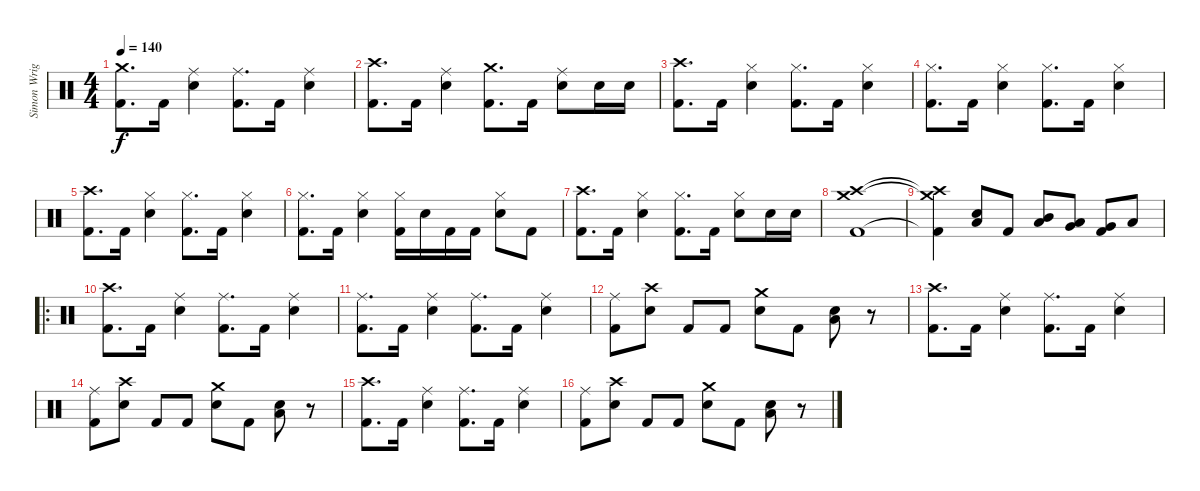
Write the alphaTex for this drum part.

\track ("Simon Wright" "Simon Wrig") {instrument percussion}
\staff {score}
\articulation defaults
\ts (4 4)
\tempo 140
\clef neutral
\ks c
("Crash medium (hit)" "Kick (hit) 2").8{d dy f} "Kick (hit) 2".16 ("Ride (middle)" "Snare (hit) 2").4 ("Ride (middle)" "Kick (hit) 2").8{d} "Kick (hit) 2".16 ("Ride (middle)" "Snare (hit) 2").4 |
("Crash high (hit)" "Kick (hit) 2").8{d} "Kick (hit) 2".16 ("Ride (middle)" "Snare (hit) 2").4 ("Crash medium (hit)" "Kick (hit) 2").8{d} "Kick (hit) 2".16 ("Ride (middle)" "Snare (hit) 2").8 "Snare (hit) 2".16 "Snare (hit) 2".16 |
("Crash high (hit)" "Kick (hit) 2").8{d} "Kick (hit) 2".16 ("Hi-Hat (closed)" "Snare (hit) 2").4 ("Hi-Hat (closed)" "Kick (hit) 2").8{d} "Kick (hit) 2".16 ("Hi-Hat (closed)" "Snare (hit) 2").4 |
("Hi-Hat (closed)" "Kick (hit) 2").8{d} "Kick (hit) 2".16 ("Hi-Hat (closed)" "Snare (hit) 2").4 ("Hi-Hat (closed)" "Kick (hit) 2").8{d} "Kick (hit) 2".16 ("Hi-Hat (closed)" "Snare (hit) 2").4 |
("Crash high (hit)" "Kick (hit) 2").8{d} "Kick (hit) 2".16 ("Hi-Hat (closed)" "Snare (hit) 2").4 ("Hi-Hat (closed)" "Kick (hit) 2").8{d} "Kick (hit) 2".16 ("Hi-Hat (closed)" "Snare (hit) 2").4 |
("Hi-Hat (closed)" "Kick (hit) 2").8{d} "Kick (hit) 2".16 ("Hi-Hat (closed)" "Snare (hit) 2").4 ("Hi-Hat (closed)" "Kick (hit) 2").16 "Snare (hit) 2".16 "Kick (hit) 2".16 "Kick (hit) 2".16 ("Hi-Hat (closed)" "Snare (hit) 2").8 "Kick (hit) 2".8 |
("Crash high (hit)" "Kick (hit) 2").8{d} "Kick (hit) 2".16 ("Hi-Hat (closed)" "Snare (hit) 2").4 ("Hi-Hat (closed)" "Kick (hit) 2").8{d} "Kick (hit) 2".16 ("Hi-Hat (closed)" "Snare (hit) 2").8 "Snare (hit) 2".16 "Snare (hit) 2".16 |
("Crash medium (hit)" "Crash high (hit)" "Kick (hit) 2").1 |
("Crash medium (hit)"{t} "Crash high (hit)"{t} "Kick (hit) 2"{t}).4 ("Low Tom (hit)" "Snare (hit) 2").8 "Kick (hit) 2".8 ("Mid Tom (hit)" "Low Tom (hit)").8 ("Low Tom (hit)" "Very Low Tom (hit)").8 ("Very Low Tom (hit)" "Kick (hit) 2").8 "Low Floor Tom (hit)".8 |
\ro
("Crash high (hit)" "Kick (hit) 2").8{d} "Kick (hit) 2".16 ("Ride (middle)" "Snare (hit) 2").4 ("Ride (middle)" "Kick (hit) 2").8{d} "Kick (hit) 2".16 ("Ride (middle)" "Snare (hit) 2").4 |
("Ride (middle)" "Kick (hit) 2").8{d} "Kick (hit) 2".16 ("Ride (middle)" "Snare (hit) 2").4 ("Ride (middle)" "Kick (hit) 2").8{d} "Kick (hit) 2".16 ("Ride (middle)" "Snare (hit) 2").4 |
("Ride (middle)" "Kick (hit) 2").8 ("Crash high (hit)" "Snare (hit) 2").8 "Kick (hit) 2".8 "Kick (hit) 2".8 ("Crash medium (hit)" "Snare (hit) 2").8 "Kick (hit) 2".8 ("Low Tom (hit)" "Snare (hit) 2").8 r.8 |
("Crash high (hit)" "Kick (hit) 2").8{d} "Kick (hit) 2".16 ("Ride (middle)" "Snare (hit) 2").4 ("Ride (middle)" "Kick (hit) 2").8{d} "Kick (hit) 2".16 ("Ride (middle)" "Snare (hit) 2").4 |
("Ride (middle)" "Kick (hit) 2").8 ("Crash high (hit)" "Snare (hit) 2").8 "Kick (hit) 2".8 "Kick (hit) 2".8 ("Crash medium (hit)" "Snare (hit) 2").8 "Kick (hit) 2".8 ("Low Tom (hit)" "Snare (hit) 2").8 r.8 |
("Crash high (hit)" "Kick (hit) 2").8{d} "Kick (hit) 2".16 ("Ride (middle)" "Snare (hit) 2").4 ("Ride (middle)" "Kick (hit) 2").8{d} "Kick (hit) 2".16 ("Ride (middle)" "Snare (hit) 2").4 |
("Ride (middle)" "Kick (hit) 2").8 ("Crash high (hit)" "Snare (hit) 2").8 "Kick (hit) 2".8 "Kick (hit) 2".8 ("Crash medium (hit)" "Snare (hit) 2").8 "Kick (hit) 2".8 ("Low Tom (hit)" "Snare (hit) 2").8 r.8
